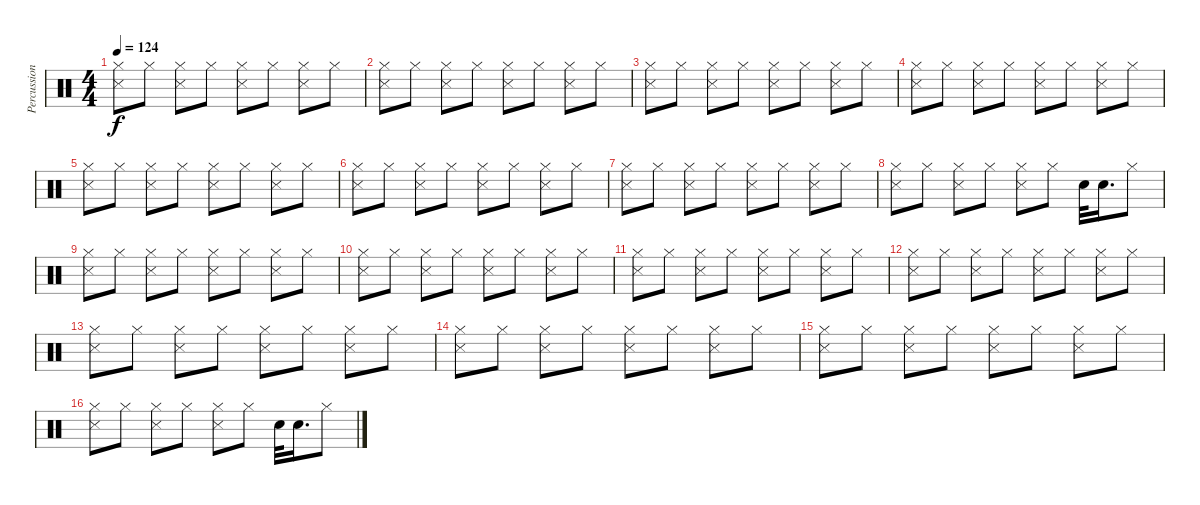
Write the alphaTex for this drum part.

\track ("Percussion" "Percussion") {instrument percussion}
\staff {score}
\articulation defaults
\ts (4 4)
\tempo 124
\clef neutral
\ks c
("Hi-Hat (closed)" "Snare (side stick) 3").8{dy f} "Hi-Hat (closed)".8 ("Hi-Hat (closed)" "Snare (side stick) 3").8 "Hi-Hat (closed)".8 ("Hi-Hat (closed)" "Snare (side stick) 3").8 "Hi-Hat (closed)".8 ("Hi-Hat (closed)" "Snare (side stick) 3").8 "Hi-Hat (closed)".8 |
("Hi-Hat (closed)" "Snare (side stick) 3").8 "Hi-Hat (closed)".8 ("Hi-Hat (closed)" "Snare (side stick) 3").8 "Hi-Hat (closed)".8 ("Hi-Hat (closed)" "Snare (side stick) 3").8 "Hi-Hat (closed)".8 ("Hi-Hat (closed)" "Snare (side stick) 3").8 "Hi-Hat (closed)".8 |
("Hi-Hat (closed)" "Snare (side stick) 3").8 "Hi-Hat (closed)".8 ("Hi-Hat (closed)" "Snare (side stick) 3").8 "Hi-Hat (closed)".8 ("Hi-Hat (closed)" "Snare (side stick) 3").8 "Hi-Hat (closed)".8 ("Hi-Hat (closed)" "Snare (side stick) 3").8 "Hi-Hat (closed)".8 |
("Hi-Hat (closed)" "Snare (side stick) 3").8 "Hi-Hat (closed)".8 ("Hi-Hat (closed)" "Snare (side stick) 3").8 "Hi-Hat (closed)".8 ("Hi-Hat (closed)" "Snare (side stick) 3").8 "Hi-Hat (closed)".8 ("Hi-Hat (closed)" "Snare (side stick) 3").8 "Hi-Hat (closed)".8 |
("Hi-Hat (closed)" "Snare (side stick) 3").8 "Hi-Hat (closed)".8 ("Hi-Hat (closed)" "Snare (side stick) 3").8 "Hi-Hat (closed)".8 ("Hi-Hat (closed)" "Snare (side stick) 3").8 "Hi-Hat (closed)".8 ("Hi-Hat (closed)" "Snare (side stick) 3").8 "Hi-Hat (closed)".8 |
("Hi-Hat (closed)" "Snare (side stick) 3").8 "Hi-Hat (closed)".8 ("Hi-Hat (closed)" "Snare (side stick) 3").8 "Hi-Hat (closed)".8 ("Hi-Hat (closed)" "Snare (side stick) 3").8 "Hi-Hat (closed)".8 ("Hi-Hat (closed)" "Snare (side stick) 3").8 "Hi-Hat (closed)".8 |
("Hi-Hat (closed)" "Snare (side stick) 3").8 "Hi-Hat (closed)".8 ("Hi-Hat (closed)" "Snare (side stick) 3").8 "Hi-Hat (closed)".8 ("Hi-Hat (closed)" "Snare (side stick) 3").8 "Hi-Hat (closed)".8 ("Hi-Hat (closed)" "Snare (side stick) 3").8 "Hi-Hat (closed)".8 |
("Hi-Hat (closed)" "Snare (side stick) 3").8 "Hi-Hat (closed)".8 ("Hi-Hat (closed)" "Snare (side stick) 3").8 "Hi-Hat (closed)".8 ("Hi-Hat (closed)" "Snare (side stick) 3").8 "Hi-Hat (closed)".8 "Snare (hit) 2".32 "Snare (hit) 2".16{d} "Hi-Hat (closed)".8 |
("Hi-Hat (closed)" "Snare (side stick) 3").8 "Hi-Hat (closed)".8 ("Hi-Hat (closed)" "Snare (side stick) 3").8 "Hi-Hat (closed)".8 ("Hi-Hat (closed)" "Snare (side stick) 3").8 "Hi-Hat (closed)".8 ("Hi-Hat (closed)" "Snare (side stick) 3").8 "Hi-Hat (closed)".8 |
("Hi-Hat (closed)" "Snare (side stick) 3").8 "Hi-Hat (closed)".8 ("Hi-Hat (closed)" "Snare (side stick) 3").8 "Hi-Hat (closed)".8 ("Hi-Hat (closed)" "Snare (side stick) 3").8 "Hi-Hat (closed)".8 ("Hi-Hat (closed)" "Snare (side stick) 3").8 "Hi-Hat (closed)".8 |
("Hi-Hat (closed)" "Snare (side stick) 3").8 "Hi-Hat (closed)".8 ("Hi-Hat (closed)" "Snare (side stick) 3").8 "Hi-Hat (closed)".8 ("Hi-Hat (closed)" "Snare (side stick) 3").8 "Hi-Hat (closed)".8 ("Hi-Hat (closed)" "Snare (side stick) 3").8 "Hi-Hat (closed)".8 |
("Hi-Hat (closed)" "Snare (side stick) 3").8 "Hi-Hat (closed)".8 ("Hi-Hat (closed)" "Snare (side stick) 3").8 "Hi-Hat (closed)".8 ("Hi-Hat (closed)" "Snare (side stick) 3").8 "Hi-Hat (closed)".8 ("Hi-Hat (closed)" "Snare (side stick) 3").8 "Hi-Hat (closed)".8 |
("Hi-Hat (closed)" "Snare (side stick) 3").8 "Hi-Hat (closed)".8 ("Hi-Hat (closed)" "Snare (side stick) 3").8 "Hi-Hat (closed)".8 ("Hi-Hat (closed)" "Snare (side stick) 3").8 "Hi-Hat (closed)".8 ("Hi-Hat (closed)" "Snare (side stick) 3").8 "Hi-Hat (closed)".8 |
("Hi-Hat (closed)" "Snare (side stick) 3").8 "Hi-Hat (closed)".8 ("Hi-Hat (closed)" "Snare (side stick) 3").8 "Hi-Hat (closed)".8 ("Hi-Hat (closed)" "Snare (side stick) 3").8 "Hi-Hat (closed)".8 ("Hi-Hat (closed)" "Snare (side stick) 3").8 "Hi-Hat (closed)".8 |
("Hi-Hat (closed)" "Snare (side stick) 3").8 "Hi-Hat (closed)".8 ("Hi-Hat (closed)" "Snare (side stick) 3").8 "Hi-Hat (closed)".8 ("Hi-Hat (closed)" "Snare (side stick) 3").8 "Hi-Hat (closed)".8 ("Hi-Hat (closed)" "Snare (side stick) 3").8 "Hi-Hat (closed)".8 |
("Hi-Hat (closed)" "Snare (side stick) 3").8 "Hi-Hat (closed)".8 ("Hi-Hat (closed)" "Snare (side stick) 3").8 "Hi-Hat (closed)".8 ("Hi-Hat (closed)" "Snare (side stick) 3").8 "Hi-Hat (closed)".8 "Snare (hit) 2".32 "Snare (hit) 2".16{d} "Hi-Hat (closed)".8
